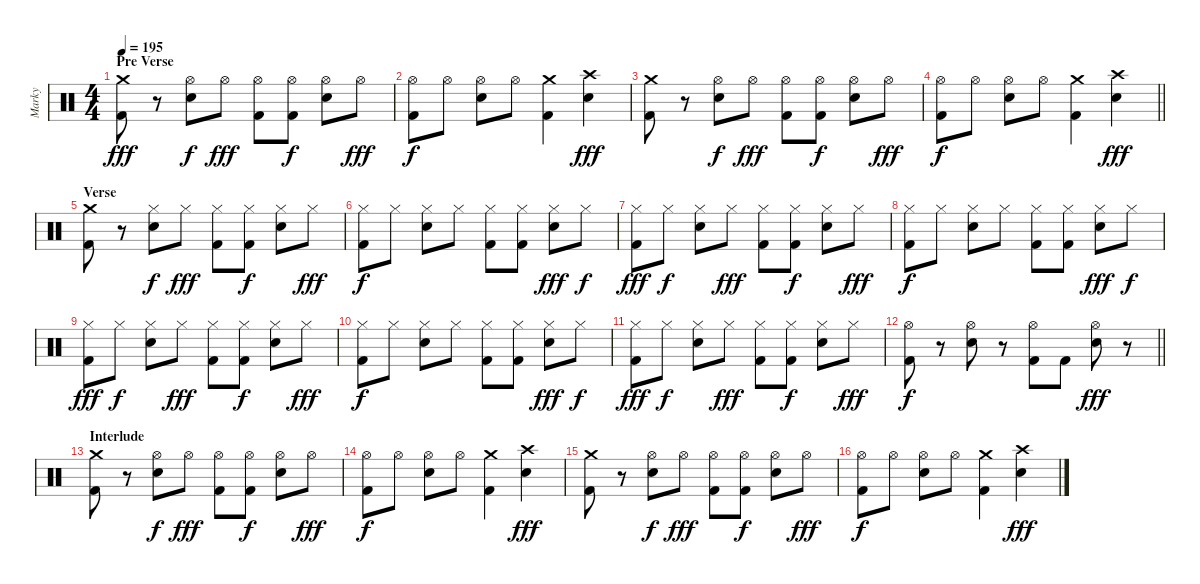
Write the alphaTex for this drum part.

\track ("Marky" "Marky") {instrument percussion}
\staff {score}
\articulation defaults
\ts (4 4)
\section ("" "Pre Verse")
\tempo 195
\clef neutral
\ks c
("Crash medium (hit)" "Kick (hit) 2").8{dy fff} r.8 ("Hi-Hat (open)" "Electric Snare (hit)").8{dy f} "Hi-Hat (open)".8{dy fff} ("Hi-Hat (open)" "Kick (hit) 2").8 ("Hi-Hat (open)" "Kick (hit) 2").8{dy f} ("Hi-Hat (open)" "Electric Snare (hit)").8 "Hi-Hat (open)".8{dy fff} |
("Hi-Hat (open)" "Kick (hit) 2").8{dy f} "Hi-Hat (open)".8 ("Hi-Hat (open)" "Electric Snare (hit)").8 "Hi-Hat (open)".8 ("Crash medium (hit)" "Kick (hit) 2").4 ("Crash high (hit)" "Electric Snare (hit)").4{dy fff} |
("Crash medium (hit)" "Kick (hit) 2").8 r.8 ("Hi-Hat (open)" "Electric Snare (hit)").8{dy f} "Hi-Hat (open)".8{dy fff} ("Hi-Hat (open)" "Kick (hit) 2").8 ("Hi-Hat (open)" "Kick (hit) 2").8{dy f} ("Hi-Hat (open)" "Electric Snare (hit)").8 "Hi-Hat (open)".8{dy fff} |
\barLineRight lightlight
("Hi-Hat (open)" "Kick (hit) 2").8{dy f} "Hi-Hat (open)".8 ("Hi-Hat (open)" "Electric Snare (hit)").8 "Hi-Hat (open)".8 ("Crash medium (hit)" "Kick (hit) 2").4 ("Crash high (hit)" "Electric Snare (hit)").4{dy fff} |
\section ("" "Verse")
("Crash medium (hit)" "Kick (hit) 2").8 r.8 ("Hi-Hat (closed)" "Electric Snare (hit)").8{dy f} "Hi-Hat (closed)".8{dy fff} ("Hi-Hat (closed)" "Kick (hit) 2").8 ("Hi-Hat (closed)" "Kick (hit) 2").8{dy f} ("Hi-Hat (closed)" "Electric Snare (hit)").8 "Hi-Hat (closed)".8{dy fff} |
("Hi-Hat (closed)" "Kick (hit) 2").8{dy f} "Hi-Hat (closed)".8 ("Hi-Hat (closed)" "Electric Snare (hit)").8 "Hi-Hat (closed)".8 ("Hi-Hat (closed)" "Kick (hit) 2").8 ("Hi-Hat (closed)" "Kick (hit) 2").8 ("Hi-Hat (closed)" "Electric Snare (hit)").8{dy fff} "Hi-Hat (closed)".8{dy f} |
("Hi-Hat (closed)" "Kick (hit) 2").8{dy fff} "Hi-Hat (closed)".8{dy f} ("Hi-Hat (closed)" "Electric Snare (hit)").8 "Hi-Hat (closed)".8{dy fff} ("Hi-Hat (closed)" "Kick (hit) 2").8 ("Hi-Hat (closed)" "Kick (hit) 2").8{dy f} ("Hi-Hat (closed)" "Electric Snare (hit)").8 "Hi-Hat (closed)".8{dy fff} |
("Hi-Hat (closed)" "Kick (hit) 2").8{dy f} "Hi-Hat (closed)".8 ("Hi-Hat (closed)" "Electric Snare (hit)").8 "Hi-Hat (closed)".8 ("Hi-Hat (closed)" "Kick (hit) 2").8 ("Hi-Hat (closed)" "Kick (hit) 2").8 ("Hi-Hat (closed)" "Electric Snare (hit)").8{dy fff} "Hi-Hat (closed)".8{dy f} |
("Hi-Hat (closed)" "Kick (hit) 2").8{dy fff} "Hi-Hat (closed)".8{dy f} ("Hi-Hat (closed)" "Electric Snare (hit)").8 "Hi-Hat (closed)".8{dy fff} ("Hi-Hat (closed)" "Kick (hit) 2").8 ("Hi-Hat (closed)" "Kick (hit) 2").8{dy f} ("Hi-Hat (closed)" "Electric Snare (hit)").8 "Hi-Hat (closed)".8{dy fff} |
("Hi-Hat (closed)" "Kick (hit) 2").8{dy f} "Hi-Hat (closed)".8 ("Hi-Hat (closed)" "Electric Snare (hit)").8 "Hi-Hat (closed)".8 ("Hi-Hat (closed)" "Kick (hit) 2").8 ("Hi-Hat (closed)" "Kick (hit) 2").8 ("Hi-Hat (closed)" "Electric Snare (hit)").8{dy fff} "Hi-Hat (closed)".8{dy f} |
("Hi-Hat (closed)" "Kick (hit) 2").8{dy fff} "Hi-Hat (closed)".8{dy f} ("Hi-Hat (closed)" "Electric Snare (hit)").8 "Hi-Hat (closed)".8{dy fff} ("Hi-Hat (closed)" "Kick (hit) 2").8 ("Hi-Hat (closed)" "Kick (hit) 2").8{dy f} ("Hi-Hat (closed)" "Electric Snare (hit)").8 "Hi-Hat (closed)".8{dy fff} |
\barLineRight lightlight
("Hi-Hat (open)" "Kick (hit) 2").8{dy f} r.8 ("Hi-Hat (open)" "Electric Snare (hit)").8 r.8 ("Hi-Hat (open)" "Kick (hit) 2").8 "Kick (hit) 2".8 ("Hi-Hat (open)" "Electric Snare (hit)").8{dy fff} r.8 |
\section ("" "Interlude")
("Crash medium (hit)" "Kick (hit) 2").8 r.8 ("Hi-Hat (open)" "Electric Snare (hit)").8{dy f} "Hi-Hat (open)".8{dy fff} ("Hi-Hat (open)" "Kick (hit) 2").8 ("Hi-Hat (open)" "Kick (hit) 2").8{dy f} ("Hi-Hat (open)" "Electric Snare (hit)").8 "Hi-Hat (open)".8{dy fff} |
("Hi-Hat (open)" "Kick (hit) 2").8{dy f} "Hi-Hat (open)".8 ("Hi-Hat (open)" "Electric Snare (hit)").8 "Hi-Hat (open)".8 ("Crash medium (hit)" "Kick (hit) 2").4 ("Crash high (hit)" "Electric Snare (hit)").4{dy fff} |
("Crash medium (hit)" "Kick (hit) 2").8 r.8 ("Hi-Hat (open)" "Electric Snare (hit)").8{dy f} "Hi-Hat (open)".8{dy fff} ("Hi-Hat (open)" "Kick (hit) 2").8 ("Hi-Hat (open)" "Kick (hit) 2").8{dy f} ("Hi-Hat (open)" "Electric Snare (hit)").8 "Hi-Hat (open)".8{dy fff} |
("Hi-Hat (open)" "Kick (hit) 2").8{dy f} "Hi-Hat (open)".8 ("Hi-Hat (open)" "Electric Snare (hit)").8 "Hi-Hat (open)".8 ("Crash medium (hit)" "Kick (hit) 2").4 ("Crash high (hit)" "Electric Snare (hit)").4{dy fff}
